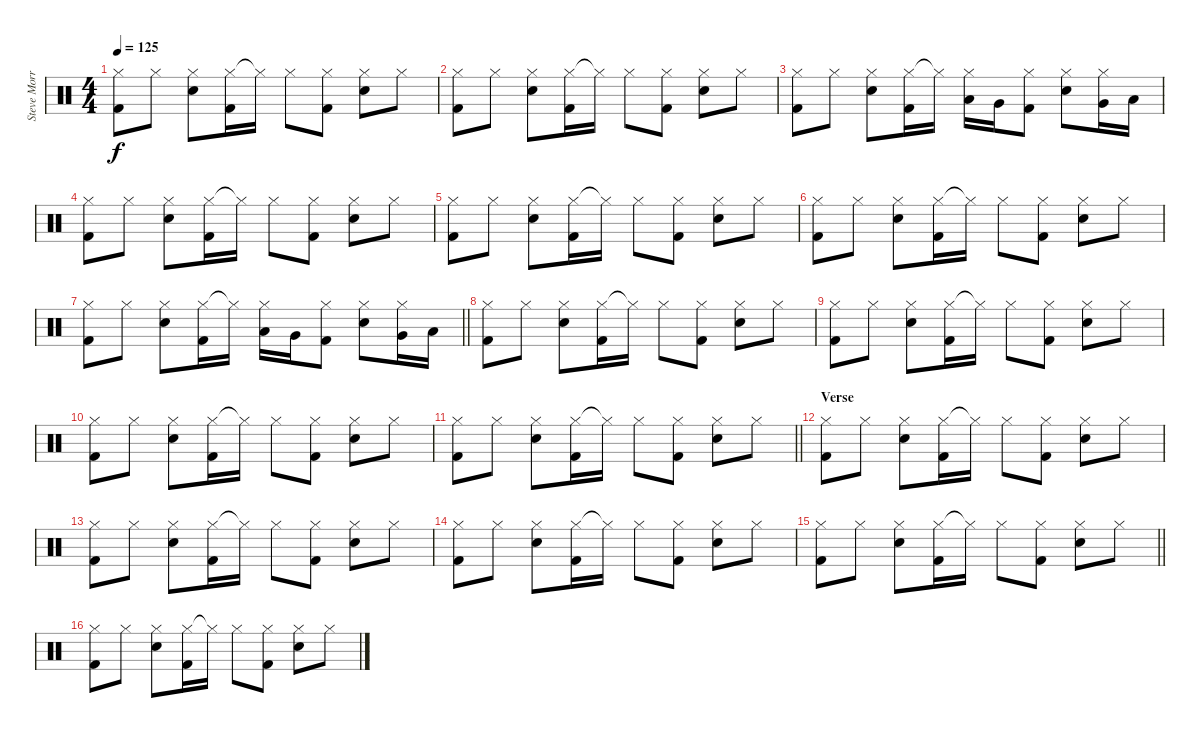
\track ("Steve Morris" "Steve Morr") {instrument percussion}
\staff {score}
\articulation defaults
\ts (4 4)
\tempo 125
\clef neutral
\ks c
("Hi-Hat (closed)" "Kick (hit) 2").8{dy f} "Hi-Hat (closed)".8 ("Hi-Hat (closed)" "Electric Snare (hit)").8 ("Hi-Hat (closed)" "Kick (hit) 2").16 "Hi-Hat (closed)"{t}.16 "Hi-Hat (closed)".8 ("Hi-Hat (closed)" "Kick (hit) 2").8 ("Hi-Hat (closed)" "Electric Snare (hit)").8 "Hi-Hat (closed)".8 |
("Hi-Hat (closed)" "Kick (hit) 2").8 "Hi-Hat (closed)".8 ("Hi-Hat (closed)" "Electric Snare (hit)").8 ("Hi-Hat (closed)" "Kick (hit) 2").16 "Hi-Hat (closed)"{t}.16 "Hi-Hat (closed)".8 ("Hi-Hat (closed)" "Kick (hit) 2").8 ("Hi-Hat (closed)" "Electric Snare (hit)").8 "Hi-Hat (closed)".8 |
("Hi-Hat (closed)" "Kick (hit) 2").8 "Hi-Hat (closed)".8 ("Hi-Hat (closed)" "Electric Snare (hit)").8 ("Hi-Hat (closed)" "Kick (hit) 2").16 "Hi-Hat (closed)"{t}.16 ("Hi-Hat (closed)" "Low Tom (hit)").16 "Very Low Tom (hit)".16 ("Hi-Hat (closed)" "Kick (hit) 2").8 ("Hi-Hat (closed)" "Electric Snare (hit)").8 ("Hi-Hat (closed)" "Very Low Tom (hit)").16 "Low Floor Tom (hit)".16 |
("Hi-Hat (closed)" "Kick (hit) 2").8 "Hi-Hat (closed)".8 ("Hi-Hat (closed)" "Electric Snare (hit)").8 ("Hi-Hat (closed)" "Kick (hit) 2").16 "Hi-Hat (closed)"{t}.16 "Hi-Hat (closed)".8 ("Hi-Hat (closed)" "Kick (hit) 2").8 ("Hi-Hat (closed)" "Electric Snare (hit)").8 "Hi-Hat (closed)".8 |
("Hi-Hat (closed)" "Kick (hit) 2").8 "Hi-Hat (closed)".8 ("Hi-Hat (closed)" "Electric Snare (hit)").8 ("Hi-Hat (closed)" "Kick (hit) 2").16 "Hi-Hat (closed)"{t}.16 "Hi-Hat (closed)".8 ("Hi-Hat (closed)" "Kick (hit) 2").8 ("Hi-Hat (closed)" "Electric Snare (hit)").8 "Hi-Hat (closed)".8 |
("Hi-Hat (closed)" "Kick (hit) 2").8 "Hi-Hat (closed)".8 ("Hi-Hat (closed)" "Electric Snare (hit)").8 ("Hi-Hat (closed)" "Kick (hit) 2").16 "Hi-Hat (closed)"{t}.16 "Hi-Hat (closed)".8 ("Hi-Hat (closed)" "Kick (hit) 2").8 ("Hi-Hat (closed)" "Electric Snare (hit)").8 "Hi-Hat (closed)".8 |
\barLineRight lightlight
("Hi-Hat (closed)" "Kick (hit) 2").8 "Hi-Hat (closed)".8 ("Hi-Hat (closed)" "Electric Snare (hit)").8 ("Hi-Hat (closed)" "Kick (hit) 2").16 "Hi-Hat (closed)"{t}.16 ("Hi-Hat (closed)" "Low Tom (hit)").16 "Very Low Tom (hit)".16 ("Hi-Hat (closed)" "Kick (hit) 2").8 ("Hi-Hat (closed)" "Electric Snare (hit)").8 ("Hi-Hat (closed)" "Very Low Tom (hit)").16 "Low Floor Tom (hit)".16 |
("Hi-Hat (closed)" "Kick (hit) 2").8 "Hi-Hat (closed)".8 ("Hi-Hat (closed)" "Electric Snare (hit)").8 ("Hi-Hat (closed)" "Kick (hit) 2").16 "Hi-Hat (closed)"{t}.16 "Hi-Hat (closed)".8 ("Hi-Hat (closed)" "Kick (hit) 2").8 ("Hi-Hat (closed)" "Electric Snare (hit)").8 "Hi-Hat (closed)".8 |
("Hi-Hat (closed)" "Kick (hit) 2").8 "Hi-Hat (closed)".8 ("Hi-Hat (closed)" "Electric Snare (hit)").8 ("Hi-Hat (closed)" "Kick (hit) 2").16 "Hi-Hat (closed)"{t}.16 "Hi-Hat (closed)".8 ("Hi-Hat (closed)" "Kick (hit) 2").8 ("Hi-Hat (closed)" "Electric Snare (hit)").8 "Hi-Hat (closed)".8 |
("Hi-Hat (closed)" "Kick (hit) 2").8 "Hi-Hat (closed)".8 ("Hi-Hat (closed)" "Electric Snare (hit)").8 ("Hi-Hat (closed)" "Kick (hit) 2").16 "Hi-Hat (closed)"{t}.16 "Hi-Hat (closed)".8 ("Hi-Hat (closed)" "Kick (hit) 2").8 ("Hi-Hat (closed)" "Electric Snare (hit)").8 "Hi-Hat (closed)".8 |
\barLineRight lightlight
("Hi-Hat (closed)" "Kick (hit) 2").8 "Hi-Hat (closed)".8 ("Hi-Hat (closed)" "Electric Snare (hit)").8 ("Hi-Hat (closed)" "Kick (hit) 2").16 "Hi-Hat (closed)"{t}.16 "Hi-Hat (closed)".8 ("Hi-Hat (closed)" "Kick (hit) 2").8 ("Hi-Hat (closed)" "Electric Snare (hit)").8 "Hi-Hat (closed)".8 |
\section ("" "Verse")
("Hi-Hat (closed)" "Kick (hit) 2").8 "Hi-Hat (closed)".8 ("Hi-Hat (closed)" "Electric Snare (hit)").8 ("Hi-Hat (closed)" "Kick (hit) 2").16 "Hi-Hat (closed)"{t}.16 "Hi-Hat (closed)".8 ("Hi-Hat (closed)" "Kick (hit) 2").8 ("Hi-Hat (closed)" "Electric Snare (hit)").8 "Hi-Hat (closed)".8 |
("Hi-Hat (closed)" "Kick (hit) 2").8 "Hi-Hat (closed)".8 ("Hi-Hat (closed)" "Electric Snare (hit)").8 ("Hi-Hat (closed)" "Kick (hit) 2").16 "Hi-Hat (closed)"{t}.16 "Hi-Hat (closed)".8 ("Hi-Hat (closed)" "Kick (hit) 2").8 ("Hi-Hat (closed)" "Electric Snare (hit)").8 "Hi-Hat (closed)".8 |
("Hi-Hat (closed)" "Kick (hit) 2").8 "Hi-Hat (closed)".8 ("Hi-Hat (closed)" "Electric Snare (hit)").8 ("Hi-Hat (closed)" "Kick (hit) 2").16 "Hi-Hat (closed)"{t}.16 "Hi-Hat (closed)".8 ("Hi-Hat (closed)" "Kick (hit) 2").8 ("Hi-Hat (closed)" "Electric Snare (hit)").8 "Hi-Hat (closed)".8 |
\barLineRight lightlight
("Hi-Hat (closed)" "Kick (hit) 2").8 "Hi-Hat (closed)".8 ("Hi-Hat (closed)" "Electric Snare (hit)").8 ("Hi-Hat (closed)" "Kick (hit) 2").16 "Hi-Hat (closed)"{t}.16 "Hi-Hat (closed)".8 ("Hi-Hat (closed)" "Kick (hit) 2").8 ("Hi-Hat (closed)" "Electric Snare (hit)").8 "Hi-Hat (closed)".8 |
("Hi-Hat (closed)" "Kick (hit) 2").8 "Hi-Hat (closed)".8 ("Hi-Hat (closed)" "Electric Snare (hit)").8 ("Hi-Hat (closed)" "Kick (hit) 2").16 "Hi-Hat (closed)"{t}.16 "Hi-Hat (closed)".8 ("Hi-Hat (closed)" "Kick (hit) 2").8 ("Hi-Hat (closed)" "Electric Snare (hit)").8 "Hi-Hat (closed)".8
